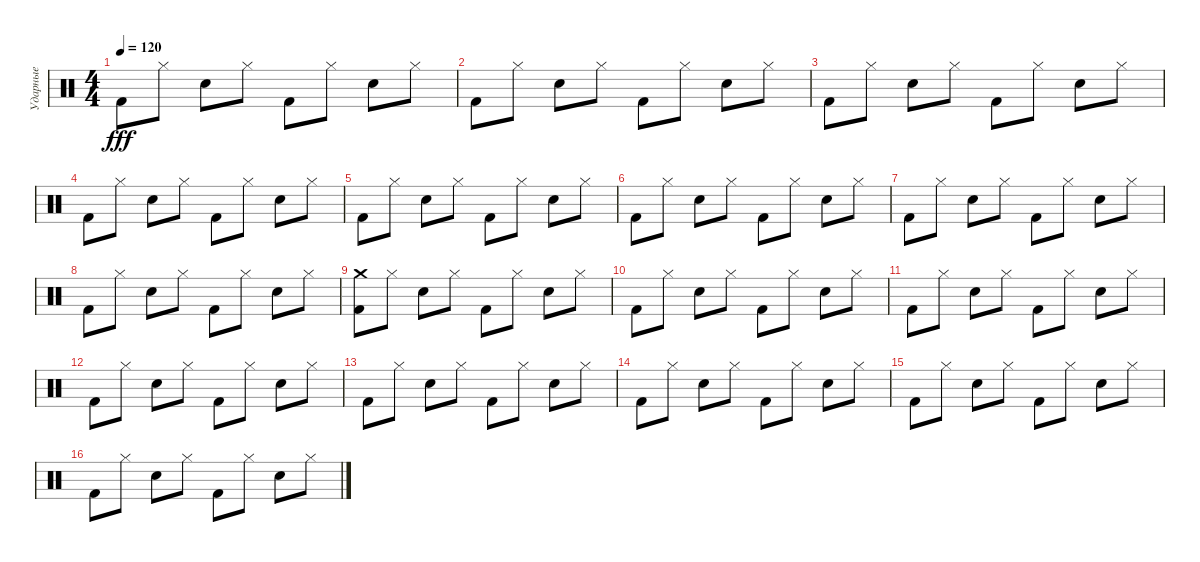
\track ("Ударные" "Ударные") {instrument percussion}
\staff {score}
\articulation defaults
\ts (4 4)
\tempo 120
\clef neutral
\ks c "Kick (hit) 2".8{dy fff} "Hi-Hat (closed)".8 "Electric Snare (hit)".8 "Hi-Hat (closed)".8 "Kick (hit) 2".8 "Hi-Hat (closed)".8 "Electric Snare (hit)".8 "Hi-Hat (closed)".8
|
"Kick (hit) 2".8 "Hi-Hat (closed)".8 "Electric Snare (hit)".8 "Hi-Hat (closed)".8 "Kick (hit) 2".8 "Hi-Hat (closed)".8 "Electric Snare (hit)".8 "Hi-Hat (closed)".8 |
"Kick (hit) 2".8 "Hi-Hat (closed)".8 "Electric Snare (hit)".8 "Hi-Hat (closed)".8 "Kick (hit) 2".8 "Hi-Hat (closed)".8 "Electric Snare (hit)".8 "Hi-Hat (closed)".8 |
"Kick (hit) 2".8 "Hi-Hat (closed)".8 "Electric Snare (hit)".8 "Hi-Hat (closed)".8 "Kick (hit) 2".8 "Hi-Hat (closed)".8 "Electric Snare (hit)".8 "Hi-Hat (closed)".8 |
"Kick (hit) 2".8 "Hi-Hat (closed)".8 "Electric Snare (hit)".8 "Hi-Hat (closed)".8 "Kick (hit) 2".8 "Hi-Hat (closed)".8 "Electric Snare (hit)".8 "Hi-Hat (closed)".8 |
"Kick (hit) 2".8 "Hi-Hat (closed)".8 "Electric Snare (hit)".8 "Hi-Hat (closed)".8 "Kick (hit) 2".8 "Hi-Hat (closed)".8 "Electric Snare (hit)".8 "Hi-Hat (closed)".8 |
"Kick (hit) 2".8 "Hi-Hat (closed)".8 "Electric Snare (hit)".8 "Hi-Hat (closed)".8 "Kick (hit) 2".8 "Hi-Hat (closed)".8 "Electric Snare (hit)".8 "Hi-Hat (closed)".8 |
"Kick (hit) 2".8 "Hi-Hat (closed)".8 "Electric Snare (hit)".8 "Hi-Hat (closed)".8 "Kick (hit) 2".8 "Hi-Hat (closed)".8 "Electric Snare (hit)".8 "Hi-Hat (closed)".8 |
("Crash medium (hit)" "Kick (hit) 2").8 "Hi-Hat (closed)".8 "Electric Snare (hit)".8 "Hi-Hat (closed)".8 "Kick (hit) 2".8 "Hi-Hat (closed)".8 "Electric Snare (hit)".8 "Hi-Hat (closed)".8 |
"Kick (hit) 2".8 "Hi-Hat (closed)".8 "Electric Snare (hit)".8 "Hi-Hat (closed)".8 "Kick (hit) 2".8 "Hi-Hat (closed)".8 "Electric Snare (hit)".8 "Hi-Hat (closed)".8 |
"Kick (hit) 2".8 "Hi-Hat (closed)".8 "Electric Snare (hit)".8 "Hi-Hat (closed)".8 "Kick (hit) 2".8 "Hi-Hat (closed)".8 "Electric Snare (hit)".8 "Hi-Hat (closed)".8 |
"Kick (hit) 2".8 "Hi-Hat (closed)".8 "Electric Snare (hit)".8 "Hi-Hat (closed)".8 "Kick (hit) 2".8 "Hi-Hat (closed)".8 "Electric Snare (hit)".8 "Hi-Hat (closed)".8 |
"Kick (hit) 2".8 "Hi-Hat (closed)".8 "Electric Snare (hit)".8 "Hi-Hat (closed)".8 "Kick (hit) 2".8 "Hi-Hat (closed)".8 "Electric Snare (hit)".8 "Hi-Hat (closed)".8 |
"Kick (hit) 2".8 "Hi-Hat (closed)".8 "Electric Snare (hit)".8 "Hi-Hat (closed)".8 "Kick (hit) 2".8 "Hi-Hat (closed)".8 "Electric Snare (hit)".8 "Hi-Hat (closed)".8 |
"Kick (hit) 2".8 "Hi-Hat (closed)".8 "Electric Snare (hit)".8 "Hi-Hat (closed)".8 "Kick (hit) 2".8 "Hi-Hat (closed)".8 "Electric Snare (hit)".8 "Hi-Hat (closed)".8 |
"Kick (hit) 2".8 "Hi-Hat (closed)".8 "Electric Snare (hit)".8 "Hi-Hat (closed)".8 "Kick (hit) 2".8 "Hi-Hat (closed)".8 "Electric Snare (hit)".8 "Hi-Hat (closed)".8
